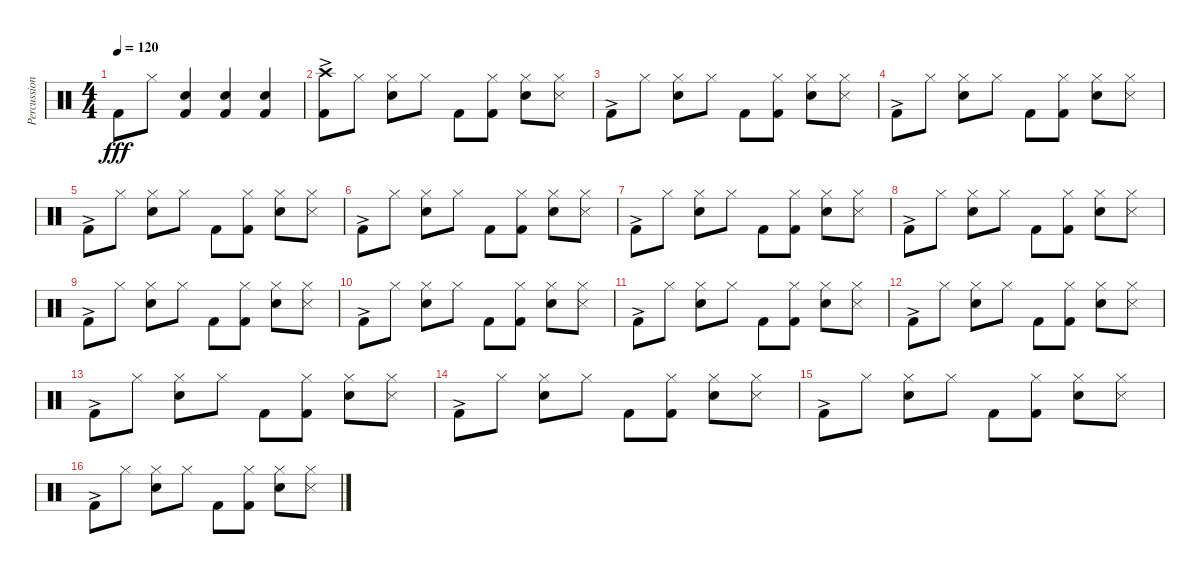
\track ("Percussion" "Percussion") {instrument percussion}
\staff {score}
\articulation defaults
\ts (4 4)
\tempo 120
\clef neutral
\ks c "Kick (hit) 2".8{dy fff} "Hi-Hat (closed)".8
("Snare (hit) 2" "Kick (hit) 2").4 ("Snare (hit) 2" "Kick (hit) 2").4 ("Snare (hit) 2" "Kick (hit) 2").4 |
("Crash high (hit)" "Kick (hit) 2"{ac}).8 "Hi-Hat (closed)".8 ("Hi-Hat (closed)" "Snare (hit) 2").8 "Hi-Hat (closed)".8 "Kick (hit) 2".8 ("Hi-Hat (closed)" "Kick (hit) 2").8 ("Hi-Hat (closed)" "Snare (hit) 2").8 ("Hi-Hat (closed)" "Snare (side stick) 3").8 |
"Kick (hit) 2"{ac}.8 "Hi-Hat (closed)".8 ("Hi-Hat (closed)" "Snare (hit) 2").8 "Hi-Hat (closed)".8 "Kick (hit) 2".8 ("Hi-Hat (closed)" "Kick (hit) 2").8 ("Hi-Hat (closed)" "Snare (hit) 2").8 ("Hi-Hat (closed)" "Snare (side stick) 3").8 |
"Kick (hit) 2"{ac}.8 "Hi-Hat (closed)".8 ("Hi-Hat (closed)" "Snare (hit) 2").8 "Hi-Hat (closed)".8 "Kick (hit) 2".8 ("Hi-Hat (closed)" "Kick (hit) 2").8 ("Hi-Hat (closed)" "Snare (hit) 2").8 ("Hi-Hat (closed)" "Snare (side stick) 3").8 |
"Kick (hit) 2"{ac}.8 "Hi-Hat (closed)".8 ("Hi-Hat (closed)" "Snare (hit) 2").8 "Hi-Hat (closed)".8 "Kick (hit) 2".8 ("Hi-Hat (closed)" "Kick (hit) 2").8 ("Hi-Hat (closed)" "Snare (hit) 2").8 ("Hi-Hat (closed)" "Snare (side stick) 3").8 |
"Kick (hit) 2"{ac}.8 "Hi-Hat (closed)".8 ("Hi-Hat (closed)" "Snare (hit) 2").8 "Hi-Hat (closed)".8 "Kick (hit) 2".8 ("Hi-Hat (closed)" "Kick (hit) 2").8 ("Hi-Hat (closed)" "Snare (hit) 2").8 ("Hi-Hat (closed)" "Snare (side stick) 3").8 |
"Kick (hit) 2"{ac}.8 "Hi-Hat (closed)".8 ("Hi-Hat (closed)" "Snare (hit) 2").8 "Hi-Hat (closed)".8 "Kick (hit) 2".8 ("Hi-Hat (closed)" "Kick (hit) 2").8 ("Hi-Hat (closed)" "Snare (hit) 2").8 ("Hi-Hat (closed)" "Snare (side stick) 3").8 |
"Kick (hit) 2"{ac}.8 "Hi-Hat (closed)".8 ("Hi-Hat (closed)" "Snare (hit) 2").8 "Hi-Hat (closed)".8 "Kick (hit) 2".8 ("Hi-Hat (closed)" "Kick (hit) 2").8 ("Hi-Hat (closed)" "Snare (hit) 2").8 ("Hi-Hat (closed)" "Snare (side stick) 3").8 |
"Kick (hit) 2"{ac}.8 "Hi-Hat (closed)".8 ("Hi-Hat (closed)" "Snare (hit) 2").8 "Hi-Hat (closed)".8 "Kick (hit) 2".8 ("Hi-Hat (closed)" "Kick (hit) 2").8 ("Hi-Hat (closed)" "Snare (hit) 2").8 ("Hi-Hat (closed)" "Snare (side stick) 3").8 |
"Kick (hit) 2"{ac}.8 "Hi-Hat (closed)".8 ("Hi-Hat (closed)" "Snare (hit) 2").8 "Hi-Hat (closed)".8 "Kick (hit) 2".8 ("Hi-Hat (closed)" "Kick (hit) 2").8 ("Hi-Hat (closed)" "Snare (hit) 2").8 ("Hi-Hat (closed)" "Snare (side stick) 3").8 |
"Kick (hit) 2"{ac}.8 "Hi-Hat (closed)".8 ("Hi-Hat (closed)" "Snare (hit) 2").8 "Hi-Hat (closed)".8 "Kick (hit) 2".8 ("Hi-Hat (closed)" "Kick (hit) 2").8 ("Hi-Hat (closed)" "Snare (hit) 2").8 ("Hi-Hat (closed)" "Snare (side stick) 3").8 |
"Kick (hit) 2"{ac}.8 "Hi-Hat (closed)".8 ("Hi-Hat (closed)" "Snare (hit) 2").8 "Hi-Hat (closed)".8 "Kick (hit) 2".8 ("Hi-Hat (closed)" "Kick (hit) 2").8 ("Hi-Hat (closed)" "Snare (hit) 2").8 ("Hi-Hat (closed)" "Snare (side stick) 3").8 |
"Kick (hit) 2"{ac}.8 "Hi-Hat (closed)".8 ("Hi-Hat (closed)" "Snare (hit) 2").8 "Hi-Hat (closed)".8 "Kick (hit) 2".8 ("Hi-Hat (closed)" "Kick (hit) 2").8 ("Hi-Hat (closed)" "Snare (hit) 2").8 ("Hi-Hat (closed)" "Snare (side stick) 3").8 |
"Kick (hit) 2"{ac}.8 "Hi-Hat (closed)".8 ("Hi-Hat (closed)" "Snare (hit) 2").8 "Hi-Hat (closed)".8 "Kick (hit) 2".8 ("Hi-Hat (closed)" "Kick (hit) 2").8 ("Hi-Hat (closed)" "Snare (hit) 2").8 ("Hi-Hat (closed)" "Snare (side stick) 3").8 |
"Kick (hit) 2"{ac}.8 "Hi-Hat (closed)".8 ("Hi-Hat (closed)" "Snare (hit) 2").8 "Hi-Hat (closed)".8 "Kick (hit) 2".8 ("Hi-Hat (closed)" "Kick (hit) 2").8 ("Hi-Hat (closed)" "Snare (hit) 2").8 ("Hi-Hat (closed)" "Snare (side stick) 3").8 |
"Kick (hit) 2"{ac}.8 "Hi-Hat (closed)".8 ("Hi-Hat (closed)" "Snare (hit) 2").8 "Hi-Hat (closed)".8 "Kick (hit) 2".8 ("Hi-Hat (closed)" "Kick (hit) 2").8 ("Hi-Hat (closed)" "Snare (hit) 2").8 ("Hi-Hat (closed)" "Snare (side stick) 3").8
